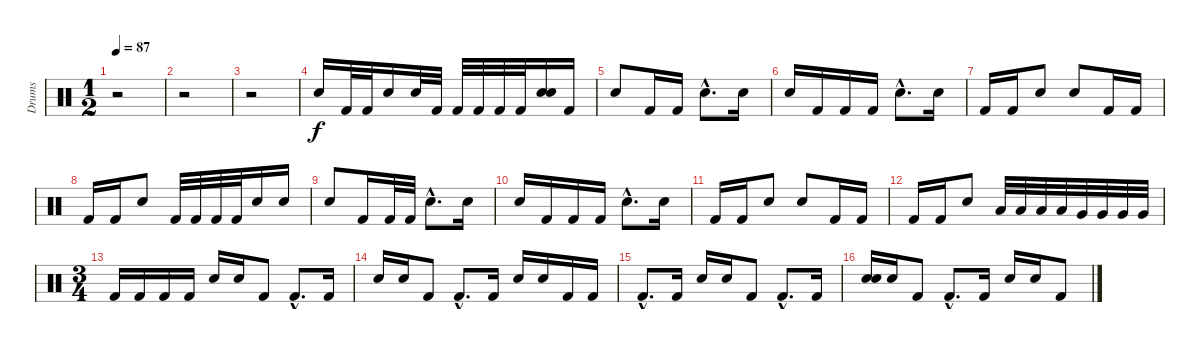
\track ("Drums" "Drums") {instrument percussion}
\staff {score}
\articulation defaults
\ts (1 2)
\tempo 87
\clef neutral
\ks c
r.2{dy f} |
r.2 |
r.2 |
"Electric Snare (hit)".16 "Kick (hit) 2".32 "Kick (hit) 2".32 "Electric Snare (hit)".16 "Snare (hit) 2".32 "Kick (hit) 2".32 "Kick (hit) 2".32 "Kick (hit) 2".32 "Kick (hit) 2".32 "Kick (hit) 2".32 ("Snare (hit) 2" "Electric Snare (hit)").16 "Kick (hit) 2".16 |
"Snare (hit) 2".8 "Kick (hit) 2".16 "Kick (hit) 2".16 "Electric Snare (hit)"{hac}.8{d} "Electric Snare (hit)".16 |
"Snare (hit) 2".16 "Kick (hit) 2".16 "Kick (hit) 2".16 "Kick (hit) 2".16 "Electric Snare (hit)"{hac}.8{d} "Electric Snare (hit)".16 |
"Kick (hit) 2".16 "Kick (hit) 2".16 "Electric Snare (hit)".8 "Electric Snare (hit)".8 "Kick (hit) 2".16 "Kick (hit) 2".16 |
"Kick (hit) 2".16 "Kick (hit) 2".16 "Electric Snare (hit)".8 "Kick (hit) 2".32 "Kick (hit) 2".32 "Kick (hit) 2".32 "Kick (hit) 2".32 "Snare (hit) 2".16 "Electric Snare (hit)".16 |
"Snare (hit) 2".8 "Kick (hit) 2".16 "Kick (hit) 2".32 "Kick (hit) 2".32 "Electric Snare (hit)"{hac}.8{d} "Electric Snare (hit)".16 |
"Snare (hit) 2".16 "Kick (hit) 2".16 "Kick (hit) 2".16 "Kick (hit) 2".16 "Electric Snare (hit)"{hac}.8{d} "Electric Snare (hit)".16 |
"Kick (hit) 2".16 "Kick (hit) 2".16 "Electric Snare (hit)".8 "Electric Snare (hit)".8 "Kick (hit) 2".16 "Kick (hit) 2".16 |
"Kick (hit) 2".16 "Kick (hit) 2".16 "Electric Snare (hit)".8 "Low Floor Tom (hit)".32 "Low Floor Tom (hit)".32 "Low Floor Tom (hit)".32 "Low Floor Tom (hit)".32 "Very Low Tom (hit)".32 "Very Low Tom (hit)".32 "Very Low Tom (hit)".32 "Very Low Tom (hit)".32 |
\ts (3 4)
"Kick (hit) 2".16 "Kick (hit) 2".16 "Kick (hit) 2".16 "Kick (hit) 2".16 "Electric Snare (hit)".16 "Snare (hit) 2".16 "Kick (hit) 2".8 "Kick (hit) 2"{hac}.8{d} "Kick (hit) 2".16 |
"Electric Snare (hit)".16 "Snare (hit) 2".16 "Kick (hit) 2".8 "Kick (hit) 2"{hac}.8{d} "Kick (hit) 2".16 "Electric Snare (hit)".16 "Snare (hit) 2".16 "Kick (hit) 2".16 "Kick (hit) 2".16 |
"Kick (hit) 2"{hac}.8{d} "Kick (hit) 2".16 "Electric Snare (hit)".16 "Snare (hit) 2".16 "Kick (hit) 2".8 "Kick (hit) 2"{hac}.8{d} "Kick (hit) 2".16 |
("Electric Snare (hit)" "Snare (hit)").16 "Snare (hit) 2".16 "Kick (hit) 2".8 "Kick (hit) 2"{hac}.8{d} "Kick (hit) 2".16 "Electric Snare (hit)".16 "Snare (hit) 2".16 "Kick (hit) 2".8
